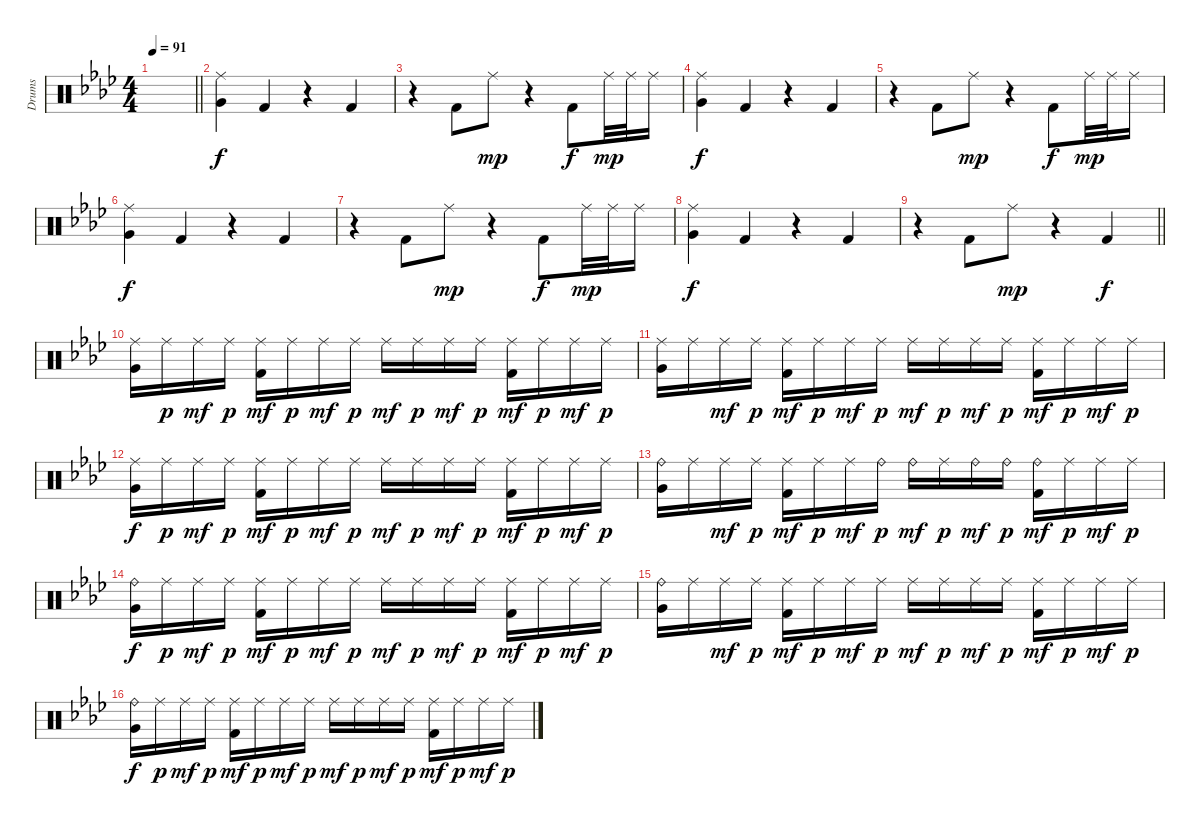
\track ("Drums" "Drums") {instrument percussion}
\staff {score}
\articulation defaults
\ts (4 4)
\tempo 91
\clef neutral
\barLineRight lightlight
\ks fminor
|
\section ("" " ")
("Ride (middle)" "Very Low Tom (hit)").4 "Kick (hit) 2".4 r.4 "Kick (hit) 2".4 |
r.4 "Kick (hit) 2".8 "Ride (middle)".8{dy mp} r.4 "Kick (hit) 2".8{dy f} "Ride (middle)".32{dy mp} "Ride (middle)".32 "Ride (middle)".16 |
("Ride (middle)" "Very Low Tom (hit)").4{dy f} "Kick (hit) 2".4 r.4 "Kick (hit) 2".4 |
r.4 "Kick (hit) 2".8 "Ride (middle)".8{dy mp} r.4 "Kick (hit) 2".8{dy f} "Ride (middle)".32{dy mp} "Ride (middle)".32 "Ride (middle)".16 |
("Ride (middle)" "Very Low Tom (hit)").4{dy f} "Kick (hit) 2".4 r.4 "Kick (hit) 2".4 |
r.4 "Kick (hit) 2".8 "Ride (middle)".8{dy mp} r.4 "Kick (hit) 2".8{dy f} "Ride (middle)".32{dy mp} "Ride (middle)".32 "Ride (middle)".16 |
("Ride (middle)" "Very Low Tom (hit)").4{dy f} "Kick (hit) 2".4 r.4 "Kick (hit) 2".4 |
\barLineRight lightlight
r.4 "Kick (hit) 2".8 "Ride (middle)".8{dy mp} r.4 "Kick (hit) 2".4{dy f} |
\section ("" " ")
("Ride (middle)" "Very Low Tom (hit)").16 "Ride (middle)".16{dy p} "Ride (middle)".16{dy mf} "Ride (middle)".16{dy p} ("Ride (middle)" "Kick (hit) 2").16{dy mf} "Ride (middle)".16{dy p} "Ride (middle)".16{dy mf} "Ride (middle)".16{dy p} "Ride (middle)".16{dy mf} "Ride (middle)".16{dy p} "Ride (middle)".16{dy mf} "Ride (middle)".16{dy p} ("Ride (middle)" "Kick (hit) 2").16{dy mf} "Ride (middle)".16{dy p} "Ride (middle)".16{dy mf} "Ride (middle)".16{dy p} |
("Ride (middle)" "Very Low Tom (hit)").16 "Ride (middle)".16 "Ride (middle)".16{dy mf} "Ride (middle)".16{dy p} ("Ride (middle)" "Kick (hit) 2").16{dy mf} "Ride (middle)".16{dy p} "Ride (middle)".16{dy mf} "Ride (middle)".16{dy p} "Ride (middle)".16{dy mf} "Ride (middle)".16{dy p} "Ride (middle)".16{dy mf} "Ride (middle)".16{dy p} ("Ride (middle)" "Kick (hit) 2").16{dy mf} "Ride (middle)".16{dy p} "Ride (middle)".16{dy mf} "Ride (middle)".16{dy p} |
("Ride (middle)" "Very Low Tom (hit)").16{dy f} "Ride (middle)".16{dy p} "Ride (middle)".16{dy mf} "Ride (middle)".16{dy p} ("Ride (middle)" "Kick (hit) 2").16{dy mf} "Ride (middle)".16{dy p} "Ride (middle)".16{dy mf} "Ride (middle)".16{dy p} "Ride (middle)".16{dy mf} "Ride (middle)".16{dy p} "Ride (middle)".16{dy mf} "Ride (middle)".16{dy p} ("Ride (middle)" "Kick (hit) 2").16{dy mf} "Ride (middle)".16{dy p} "Ride (middle)".16{dy mf} "Ride (middle)".16{dy p} |
("Ride (bell)" "Very Low Tom (hit)").16 "Ride (middle)".16 "Ride (middle)".16{dy mf} "Ride (middle)".16{dy p} ("Ride (middle)" "Kick (hit) 2").16{dy mf} "Ride (middle)".16{dy p} "Ride (middle)".16{dy mf} "Ride (bell)".16{dy p} "Ride (bell)".16{dy mf} "Ride (middle)".16{dy p} "Ride (bell)".16{dy mf} "Ride (bell)".16{dy p} ("Ride (bell)" "Kick (hit) 2").16{dy mf} "Ride (middle)".16{dy p} "Ride (middle)".16{dy mf} "Ride (middle)".16{dy p} |
("Ride (bell)" "Very Low Tom (hit)").16{dy f} "Ride (middle)".16{dy p} "Ride (middle)".16{dy mf} "Ride (middle)".16{dy p} ("Ride (middle)" "Kick (hit) 2").16{dy mf} "Ride (middle)".16{dy p} "Ride (middle)".16{dy mf} "Ride (middle)".16{dy p} "Ride (middle)".16{dy mf} "Ride (middle)".16{dy p} "Ride (middle)".16{dy mf} "Ride (middle)".16{dy p} ("Ride (middle)" "Kick (hit) 2").16{dy mf} "Ride (middle)".16{dy p} "Ride (middle)".16{dy mf} "Ride (middle)".16{dy p} |
("Ride (bell)" "Very Low Tom (hit)").16 "Ride (middle)".16 "Ride (middle)".16{dy mf} "Ride (middle)".16{dy p} ("Ride (middle)" "Kick (hit) 2").16{dy mf} "Ride (middle)".16{dy p} "Ride (middle)".16{dy mf} "Ride (middle)".16{dy p} "Ride (middle)".16{dy mf} "Ride (middle)".16{dy p} "Ride (middle)".16{dy mf} "Ride (middle)".16{dy p} ("Ride (middle)" "Kick (hit) 2").16{dy mf} "Ride (middle)".16{dy p} "Ride (middle)".16{dy mf} "Ride (middle)".16{dy p} |
("Ride (bell)" "Very Low Tom (hit)").16{dy f} "Ride (middle)".16{dy p} "Ride (middle)".16{dy mf} "Ride (middle)".16{dy p} ("Ride (middle)" "Kick (hit) 2").16{dy mf} "Ride (middle)".16{dy p} "Ride (middle)".16{dy mf} "Ride (middle)".16{dy p} "Ride (middle)".16{dy mf} "Ride (middle)".16{dy p} "Ride (middle)".16{dy mf} "Ride (middle)".16{dy p} ("Ride (middle)" "Kick (hit) 2").16{dy mf} "Ride (middle)".16{dy p} "Ride (middle)".16{dy mf} "Ride (middle)".16{dy p}
